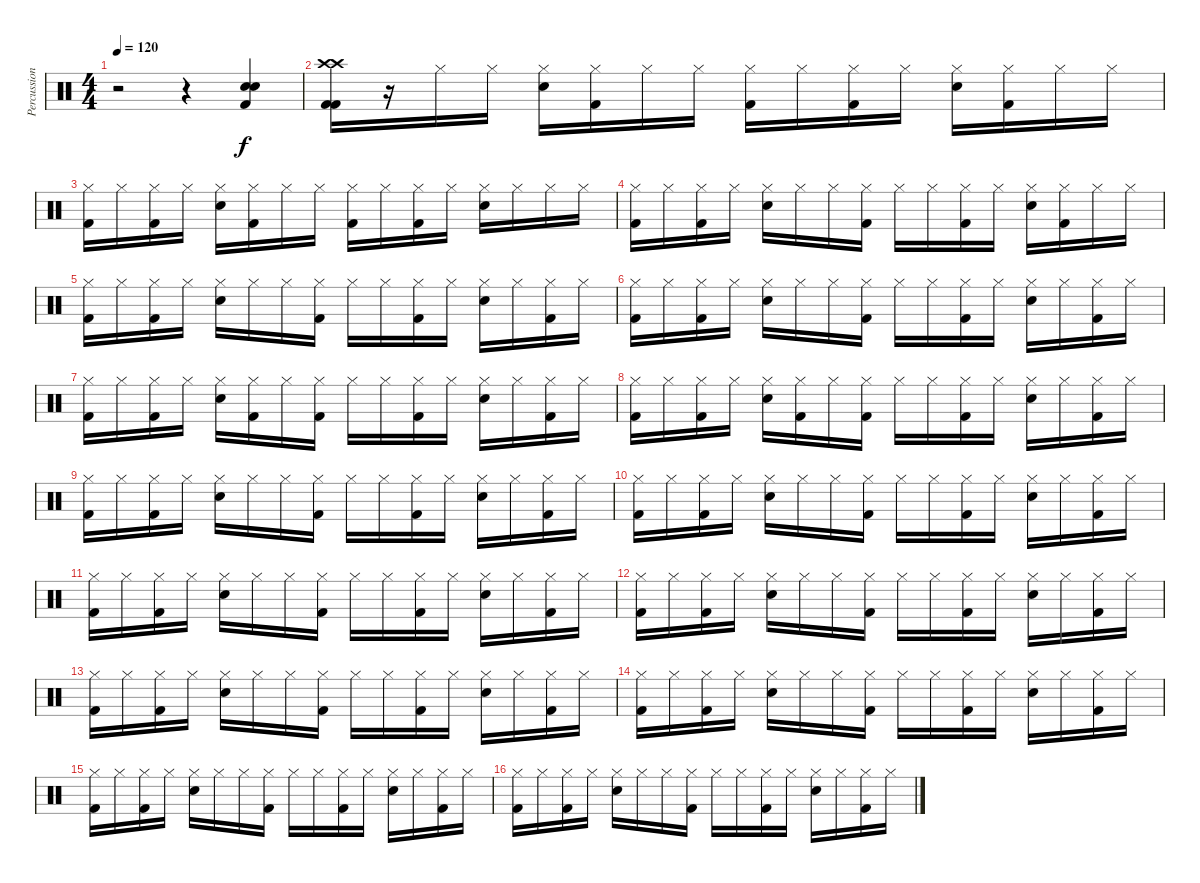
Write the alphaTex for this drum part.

\track ("Percussion" "Percussion") {instrument percussion}
\staff {score}
\articulation defaults
\ts (4 4)
\tempo 120
\clef neutral
\ks c
r.2{dy f} r.4 ("Snare (hit) 2" "Snare (hit) 2" "Kick (hit) 2").4 |
("Crash high (hit)" "Crash high (hit)" "Kick (hit) 2" "Kick (hit) 2").16 r.16 "Hi-Hat (closed)".16 "Hi-Hat (closed)".16 ("Hi-Hat (closed)" "Snare (hit) 2").16 ("Hi-Hat (closed)" "Kick (hit) 2").16 "Hi-Hat (closed)".16 "Hi-Hat (closed)".16 ("Hi-Hat (closed)" "Kick (hit) 2").16 "Hi-Hat (closed)".16 ("Hi-Hat (closed)" "Kick (hit) 2").16 "Hi-Hat (closed)".16 ("Hi-Hat (closed)" "Snare (hit) 2").16 ("Hi-Hat (closed)" "Kick (hit) 2").16 "Hi-Hat (closed)".16 "Hi-Hat (closed)".16 |
("Hi-Hat (closed)" "Kick (hit) 2").16 "Hi-Hat (closed)".16 ("Hi-Hat (closed)" "Kick (hit) 2").16 "Hi-Hat (closed)".16 ("Hi-Hat (closed)" "Snare (hit) 2").16 ("Hi-Hat (closed)" "Kick (hit) 2").16 "Hi-Hat (closed)".16 "Hi-Hat (closed)".16 ("Hi-Hat (closed)" "Kick (hit) 2").16 "Hi-Hat (closed)".16 ("Hi-Hat (closed)" "Kick (hit) 2").16 "Hi-Hat (closed)".16 ("Hi-Hat (closed)" "Snare (hit) 2").16 "Hi-Hat (closed)".16 "Hi-Hat (closed)".16 "Hi-Hat (closed)".16 |
("Hi-Hat (closed)" "Kick (hit) 2").16 "Hi-Hat (closed)".16 ("Hi-Hat (closed)" "Kick (hit) 2").16 "Hi-Hat (closed)".16 ("Hi-Hat (closed)" "Snare (hit) 2").16 "Hi-Hat (closed)".16 "Hi-Hat (closed)".16 ("Hi-Hat (closed)" "Kick (hit) 2").16 "Hi-Hat (closed)".16 "Hi-Hat (closed)".16 ("Hi-Hat (closed)" "Kick (hit) 2").16 "Hi-Hat (closed)".16 ("Hi-Hat (closed)" "Snare (hit) 2").16 ("Hi-Hat (closed)" "Kick (hit) 2").16 "Hi-Hat (closed)".16 "Hi-Hat (closed)".16 |
("Hi-Hat (closed)" "Kick (hit) 2").16 "Hi-Hat (closed)".16 ("Hi-Hat (closed)" "Kick (hit) 2").16 "Hi-Hat (closed)".16 ("Hi-Hat (closed)" "Snare (hit) 2").16 "Hi-Hat (closed)".16 "Hi-Hat (closed)".16 ("Hi-Hat (closed)" "Kick (hit) 2").16 "Hi-Hat (closed)".16 "Hi-Hat (closed)".16 ("Hi-Hat (closed)" "Kick (hit) 2").16 "Hi-Hat (closed)".16 ("Hi-Hat (closed)" "Snare (hit) 2").16 "Hi-Hat (closed)".16 ("Hi-Hat (closed)" "Kick (hit) 2").16 "Hi-Hat (closed)".16 |
("Hi-Hat (closed)" "Kick (hit) 2").16 "Hi-Hat (closed)".16 ("Hi-Hat (closed)" "Kick (hit) 2").16 "Hi-Hat (closed)".16 ("Hi-Hat (closed)" "Snare (hit) 2").16 "Hi-Hat (closed)".16 "Hi-Hat (closed)".16 ("Hi-Hat (closed)" "Kick (hit) 2").16 "Hi-Hat (closed)".16 "Hi-Hat (closed)".16 ("Hi-Hat (closed)" "Kick (hit) 2").16 "Hi-Hat (closed)".16 ("Hi-Hat (closed)" "Snare (hit) 2").16 "Hi-Hat (closed)".16 ("Hi-Hat (closed)" "Kick (hit) 2").16 "Hi-Hat (closed)".16 |
("Hi-Hat (closed)" "Kick (hit) 2").16 "Hi-Hat (closed)".16 ("Hi-Hat (closed)" "Kick (hit) 2").16 "Hi-Hat (closed)".16 ("Hi-Hat (closed)" "Snare (hit) 2").16 ("Hi-Hat (closed)" "Kick (hit) 2").16 "Hi-Hat (closed)".16 ("Hi-Hat (closed)" "Kick (hit) 2").16 "Hi-Hat (closed)".16 "Hi-Hat (closed)".16 ("Hi-Hat (closed)" "Kick (hit) 2").16 "Hi-Hat (closed)".16 ("Hi-Hat (closed)" "Snare (hit) 2").16 "Hi-Hat (closed)".16 ("Hi-Hat (closed)" "Kick (hit) 2").16 "Hi-Hat (closed)".16 |
("Hi-Hat (closed)" "Kick (hit) 2").16 "Hi-Hat (closed)".16 ("Hi-Hat (closed)" "Kick (hit) 2").16 "Hi-Hat (closed)".16 ("Hi-Hat (closed)" "Snare (hit) 2").16 ("Hi-Hat (closed)" "Kick (hit) 2").16 "Hi-Hat (closed)".16 ("Hi-Hat (closed)" "Kick (hit) 2").16 "Hi-Hat (closed)".16 "Hi-Hat (closed)".16 ("Hi-Hat (closed)" "Kick (hit) 2").16 "Hi-Hat (closed)".16 ("Hi-Hat (closed)" "Snare (hit) 2").16 "Hi-Hat (closed)".16 ("Hi-Hat (closed)" "Kick (hit) 2").16 "Hi-Hat (closed)".16 |
("Hi-Hat (closed)" "Kick (hit) 2").16 "Hi-Hat (closed)".16 ("Hi-Hat (closed)" "Kick (hit) 2").16 "Hi-Hat (closed)".16 ("Hi-Hat (closed)" "Snare (hit) 2").16 "Hi-Hat (closed)".16 "Hi-Hat (closed)".16 ("Hi-Hat (closed)" "Kick (hit) 2").16 "Hi-Hat (closed)".16 "Hi-Hat (closed)".16 ("Hi-Hat (closed)" "Kick (hit) 2").16 "Hi-Hat (closed)".16 ("Hi-Hat (closed)" "Snare (hit) 2").16 "Hi-Hat (closed)".16 ("Hi-Hat (closed)" "Kick (hit) 2").16 "Hi-Hat (closed)".16 |
("Hi-Hat (closed)" "Kick (hit) 2").16 "Hi-Hat (closed)".16 ("Hi-Hat (closed)" "Kick (hit) 2").16 "Hi-Hat (closed)".16 ("Hi-Hat (closed)" "Snare (hit) 2").16 "Hi-Hat (closed)".16 "Hi-Hat (closed)".16 ("Hi-Hat (closed)" "Kick (hit) 2").16 "Hi-Hat (closed)".16 "Hi-Hat (closed)".16 ("Hi-Hat (closed)" "Kick (hit) 2").16 "Hi-Hat (closed)".16 ("Hi-Hat (closed)" "Snare (hit) 2").16 "Hi-Hat (closed)".16 ("Hi-Hat (closed)" "Kick (hit) 2").16 "Hi-Hat (closed)".16 |
("Hi-Hat (closed)" "Kick (hit) 2").16 "Hi-Hat (closed)".16 ("Hi-Hat (closed)" "Kick (hit) 2").16 "Hi-Hat (closed)".16 ("Hi-Hat (closed)" "Snare (hit) 2").16 "Hi-Hat (closed)".16 "Hi-Hat (closed)".16 ("Hi-Hat (closed)" "Kick (hit) 2").16 "Hi-Hat (closed)".16 "Hi-Hat (closed)".16 ("Hi-Hat (closed)" "Kick (hit) 2").16 "Hi-Hat (closed)".16 ("Hi-Hat (closed)" "Snare (hit) 2").16 "Hi-Hat (closed)".16 ("Hi-Hat (closed)" "Kick (hit) 2").16 "Hi-Hat (closed)".16 |
("Hi-Hat (closed)" "Kick (hit) 2").16 "Hi-Hat (closed)".16 ("Hi-Hat (closed)" "Kick (hit) 2").16 "Hi-Hat (closed)".16 ("Hi-Hat (closed)" "Snare (hit) 2").16 "Hi-Hat (closed)".16 "Hi-Hat (closed)".16 ("Hi-Hat (closed)" "Kick (hit) 2").16 "Hi-Hat (closed)".16 "Hi-Hat (closed)".16 ("Hi-Hat (closed)" "Kick (hit) 2").16 "Hi-Hat (closed)".16 ("Hi-Hat (closed)" "Snare (hit) 2").16 "Hi-Hat (closed)".16 ("Hi-Hat (closed)" "Kick (hit) 2").16 "Hi-Hat (closed)".16 |
("Hi-Hat (closed)" "Kick (hit) 2").16 "Hi-Hat (closed)".16 ("Hi-Hat (closed)" "Kick (hit) 2").16 "Hi-Hat (closed)".16 ("Hi-Hat (closed)" "Snare (hit) 2").16 "Hi-Hat (closed)".16 "Hi-Hat (closed)".16 ("Hi-Hat (closed)" "Kick (hit) 2").16 "Hi-Hat (closed)".16 "Hi-Hat (closed)".16 ("Hi-Hat (closed)" "Kick (hit) 2").16 "Hi-Hat (closed)".16 ("Hi-Hat (closed)" "Snare (hit) 2").16 "Hi-Hat (closed)".16 ("Hi-Hat (closed)" "Kick (hit) 2").16 "Hi-Hat (closed)".16 |
("Hi-Hat (closed)" "Kick (hit) 2").16 "Hi-Hat (closed)".16 ("Hi-Hat (closed)" "Kick (hit) 2").16 "Hi-Hat (closed)".16 ("Hi-Hat (closed)" "Snare (hit) 2").16 "Hi-Hat (closed)".16 "Hi-Hat (closed)".16 ("Hi-Hat (closed)" "Kick (hit) 2").16 "Hi-Hat (closed)".16 "Hi-Hat (closed)".16 ("Hi-Hat (closed)" "Kick (hit) 2").16 "Hi-Hat (closed)".16 ("Hi-Hat (closed)" "Snare (hit) 2").16 "Hi-Hat (closed)".16 ("Hi-Hat (closed)" "Kick (hit) 2").16 "Hi-Hat (closed)".16 |
("Hi-Hat (closed)" "Kick (hit) 2").16 "Hi-Hat (closed)".16 ("Hi-Hat (closed)" "Kick (hit) 2").16 "Hi-Hat (closed)".16 ("Hi-Hat (closed)" "Snare (hit) 2").16 "Hi-Hat (closed)".16 "Hi-Hat (closed)".16 ("Hi-Hat (closed)" "Kick (hit) 2").16 "Hi-Hat (closed)".16 "Hi-Hat (closed)".16 ("Hi-Hat (closed)" "Kick (hit) 2").16 "Hi-Hat (closed)".16 ("Hi-Hat (closed)" "Snare (hit) 2").16 "Hi-Hat (closed)".16 ("Hi-Hat (closed)" "Kick (hit) 2").16 "Hi-Hat (closed)".16 |
("Hi-Hat (closed)" "Kick (hit) 2").16 "Hi-Hat (closed)".16 ("Hi-Hat (closed)" "Kick (hit) 2").16 "Hi-Hat (closed)".16 ("Hi-Hat (closed)" "Snare (hit) 2").16 "Hi-Hat (closed)".16 "Hi-Hat (closed)".16 ("Hi-Hat (closed)" "Kick (hit) 2").16 "Hi-Hat (closed)".16 "Hi-Hat (closed)".16 ("Hi-Hat (closed)" "Kick (hit) 2").16 "Hi-Hat (closed)".16 ("Hi-Hat (closed)" "Snare (hit) 2").16 "Hi-Hat (closed)".16 ("Hi-Hat (closed)" "Kick (hit) 2").16 "Hi-Hat (closed)".16
